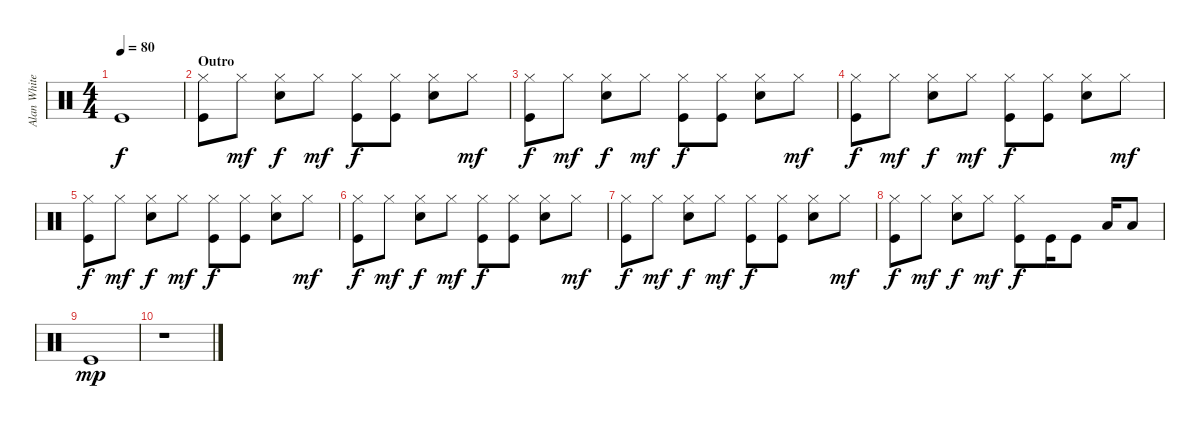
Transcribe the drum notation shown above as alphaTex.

\track ("Alan White" "Alan White") {instrument percussion}
\staff {score}
\articulation defaults
\ts (4 4)
\tempo 80
\clef neutral
\ks c "Kick (hit)".1{dy f}
|
\section ("" "Outro")
("Hi-Hat (closed)" "Kick (hit)").8 "Hi-Hat (closed)".8{dy mf} ("Hi-Hat (closed)" "Snare (hit) 2").8{dy f} "Hi-Hat (closed)".8{dy mf} ("Hi-Hat (closed)" "Kick (hit)").8{dy f} ("Hi-Hat (closed)" "Kick (hit)").8 ("Hi-Hat (closed)" "Snare (hit) 2").8 "Hi-Hat (closed)".8{dy mf} |
("Hi-Hat (closed)" "Kick (hit)").8{dy f} "Hi-Hat (closed)".8{dy mf} ("Hi-Hat (closed)" "Snare (hit) 2").8{dy f} "Hi-Hat (closed)".8{dy mf} ("Hi-Hat (closed)" "Kick (hit)").8{dy f} ("Hi-Hat (closed)" "Kick (hit)").8 ("Hi-Hat (closed)" "Snare (hit) 2").8 "Hi-Hat (closed)".8{dy mf} |
("Hi-Hat (closed)" "Kick (hit)").8{dy f} "Hi-Hat (closed)".8{dy mf} ("Hi-Hat (closed)" "Snare (hit) 2").8{dy f} "Hi-Hat (closed)".8{dy mf} ("Hi-Hat (closed)" "Kick (hit)").8{dy f} ("Hi-Hat (closed)" "Kick (hit)").8 ("Hi-Hat (closed)" "Snare (hit) 2").8 "Hi-Hat (closed)".8{dy mf} |
("Hi-Hat (closed)" "Kick (hit)").8{dy f} "Hi-Hat (closed)".8{dy mf} ("Hi-Hat (closed)" "Snare (hit) 2").8{dy f} "Hi-Hat (closed)".8{dy mf} ("Hi-Hat (closed)" "Kick (hit)").8{dy f} ("Hi-Hat (closed)" "Kick (hit)").8 ("Hi-Hat (closed)" "Snare (hit) 2").8 "Hi-Hat (closed)".8{dy mf} |
("Hi-Hat (closed)" "Kick (hit)").8{dy f} "Hi-Hat (closed)".8{dy mf} ("Hi-Hat (closed)" "Snare (hit) 2").8{dy f} "Hi-Hat (closed)".8{dy mf} ("Hi-Hat (closed)" "Kick (hit)").8{dy f} ("Hi-Hat (closed)" "Kick (hit)").8 ("Hi-Hat (closed)" "Snare (hit) 2").8 "Hi-Hat (closed)".8{dy mf} |
("Hi-Hat (closed)" "Kick (hit)").8{dy f} "Hi-Hat (closed)".8{dy mf} ("Hi-Hat (closed)" "Snare (hit) 2").8{dy f} "Hi-Hat (closed)".8{dy mf} ("Hi-Hat (closed)" "Kick (hit)").8{dy f} ("Hi-Hat (closed)" "Kick (hit)").8 ("Hi-Hat (closed)" "Snare (hit) 2").8 "Hi-Hat (closed)".8{dy mf} |
("Hi-Hat (closed)" "Kick (hit)").8{dy f} "Hi-Hat (closed)".8{dy mf} ("Hi-Hat (closed)" "Snare (hit) 2").8{dy f} "Hi-Hat (closed)".8{dy mf} ("Hi-Hat (closed)" "Kick (hit)").8{dy f} "Kick (hit)".16 "Kick (hit)".8 "Low Floor Tom (hit)".16 "Low Floor Tom (hit)".8 |
"Kick (hit)".1{dy mp} |
r.1
